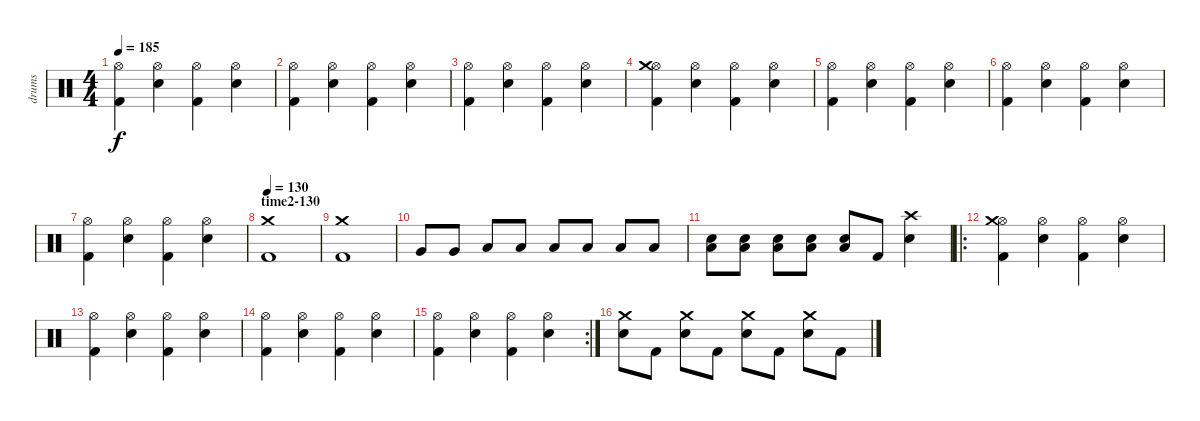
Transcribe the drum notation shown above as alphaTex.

\track ("drums" "drums") {instrument percussion}
\staff {score}
\articulation defaults
\ts (4 4)
\tempo 185
\clef neutral
\ks c
("Kick (hit) 2" "Hi-Hat (open)").4{dy f} ("Electric Snare (hit)" "Hi-Hat (open)").4 ("Kick (hit) 2" "Hi-Hat (open)").4 ("Electric Snare (hit)" "Hi-Hat (open)").4 |
("Kick (hit) 2" "Hi-Hat (open)").4 ("Electric Snare (hit)" "Hi-Hat (open)").4 ("Kick (hit) 2" "Hi-Hat (open)").4 ("Electric Snare (hit)" "Hi-Hat (open)").4 |
("Kick (hit) 2" "Hi-Hat (open)").4 ("Electric Snare (hit)" "Hi-Hat (open)").4 ("Kick (hit) 2" "Hi-Hat (open)").4 ("Electric Snare (hit)" "Hi-Hat (open)").4 |
("Kick (hit) 2" "Hi-Hat (open)" "Crash medium (hit)").4 ("Electric Snare (hit)" "Hi-Hat (open)").4 ("Kick (hit) 2" "Hi-Hat (open)").4 ("Electric Snare (hit)" "Hi-Hat (open)").4 |
("Kick (hit) 2" "Hi-Hat (open)").4 ("Electric Snare (hit)" "Hi-Hat (open)").4 ("Kick (hit) 2" "Hi-Hat (open)").4 ("Electric Snare (hit)" "Hi-Hat (open)").4 |
("Kick (hit) 2" "Hi-Hat (open)").4 ("Electric Snare (hit)" "Hi-Hat (open)").4 ("Kick (hit) 2" "Hi-Hat (open)").4 ("Electric Snare (hit)" "Hi-Hat (open)").4 |
("Kick (hit) 2" "Hi-Hat (open)").4 ("Electric Snare (hit)" "Hi-Hat (open)").4 ("Kick (hit) 2" "Hi-Hat (open)").4 ("Electric Snare (hit)" "Hi-Hat (open)").4 |
\section ("" "time2-130")
\tempo 130
("Kick (hit) 2" "Crash medium (hit)").1 |
("Kick (hit) 2" "Crash medium (hit)").1 |
"Very Low Tom (hit)".8 "Very Low Tom (hit)".8 "Low Tom (hit)".8 "Low Tom (hit)".8 "Low Tom (hit)".8 "Low Tom (hit)".8 "Low Tom (hit)".8 "Low Tom (hit)".8 |
("Low Tom (hit)" "Electric Snare (hit)").8 ("Low Tom (hit)" "Electric Snare (hit)").8 ("Low Tom (hit)" "Electric Snare (hit)").8 ("Low Tom (hit)" "Electric Snare (hit)").8 ("Low Tom (hit)" "Electric Snare (hit)").8 "Kick (hit) 2".8 ("Electric Snare (hit)" "Crash high (hit)").4 |
\ro
("Kick (hit) 2" "Hi-Hat (open)" "Crash medium (hit)").4 ("Electric Snare (hit)" "Hi-Hat (open)").4 ("Kick (hit) 2" "Hi-Hat (open)").4 ("Electric Snare (hit)" "Hi-Hat (open)").4 |
("Kick (hit) 2" "Hi-Hat (open)").4 ("Electric Snare (hit)" "Hi-Hat (open)").4 ("Kick (hit) 2" "Hi-Hat (open)").4 ("Electric Snare (hit)" "Hi-Hat (open)").4 |
("Kick (hit) 2" "Hi-Hat (open)").4 ("Electric Snare (hit)" "Hi-Hat (open)").4 ("Kick (hit) 2" "Hi-Hat (open)").4 ("Electric Snare (hit)" "Hi-Hat (open)").4 |
\rc 2
("Kick (hit) 2" "Hi-Hat (open)").4 ("Electric Snare (hit)" "Hi-Hat (open)").4 ("Kick (hit) 2" "Hi-Hat (open)").4 ("Electric Snare (hit)" "Hi-Hat (open)").4 |
("Electric Snare (hit)" "Crash medium (hit)").8 "Kick (hit) 2".8 ("Electric Snare (hit)" "Crash medium (hit)").8 "Kick (hit) 2".8 ("Electric Snare (hit)" "Crash medium (hit)").8 "Kick (hit) 2".8 ("Electric Snare (hit)" "Crash medium (hit)").8 "Kick (hit) 2".8
